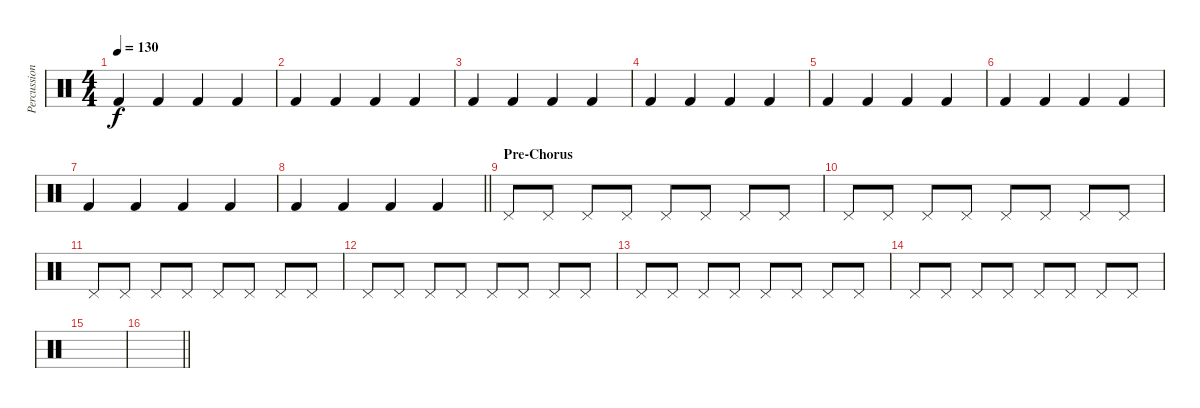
\track ("Percussion" "Percussion") {instrument percussion}
\staff {score}
\articulation defaults
\ts (4 4)
\tempo 130
\clef neutral
\ks c "Kick (hit) 2".4{dy f} "Kick (hit) 2".4 "Kick (hit) 2".4 "Kick (hit) 2".4
|
"Kick (hit) 2".4 "Kick (hit) 2".4 "Kick (hit) 2".4 "Kick (hit) 2".4 |
"Kick (hit) 2".4 "Kick (hit) 2".4 "Kick (hit) 2".4 "Kick (hit) 2".4 |
"Kick (hit) 2".4 "Kick (hit) 2".4 "Kick (hit) 2".4 "Kick (hit) 2".4 |
"Kick (hit) 2".4 "Kick (hit) 2".4 "Kick (hit) 2".4 "Kick (hit) 2".4 |
"Kick (hit) 2".4 "Kick (hit) 2".4 "Kick (hit) 2".4 "Kick (hit) 2".4 |
"Kick (hit) 2".4 "Kick (hit) 2".4 "Kick (hit) 2".4 "Kick (hit) 2".4 |
\barLineRight lightlight "Kick (hit) 2".4 "Kick (hit) 2".4 "Kick (hit) 2".4 "Kick (hit) 2".4
|
\section ("" "Pre-Chorus")
"Pedal Hi-Hat (hit)".8 "Pedal Hi-Hat (hit)".8 "Pedal Hi-Hat (hit)".8 "Pedal Hi-Hat (hit)".8 "Pedal Hi-Hat (hit)".8 "Pedal Hi-Hat (hit)".8 "Pedal Hi-Hat (hit)".8 "Pedal Hi-Hat (hit)".8 |
"Pedal Hi-Hat (hit)".8 "Pedal Hi-Hat (hit)".8 "Pedal Hi-Hat (hit)".8 "Pedal Hi-Hat (hit)".8 "Pedal Hi-Hat (hit)".8 "Pedal Hi-Hat (hit)".8 "Pedal Hi-Hat (hit)".8 "Pedal Hi-Hat (hit)".8 |
"Pedal Hi-Hat (hit)".8 "Pedal Hi-Hat (hit)".8 "Pedal Hi-Hat (hit)".8 "Pedal Hi-Hat (hit)".8 "Pedal Hi-Hat (hit)".8 "Pedal Hi-Hat (hit)".8 "Pedal Hi-Hat (hit)".8 "Pedal Hi-Hat (hit)".8 |
"Pedal Hi-Hat (hit)".8 "Pedal Hi-Hat (hit)".8 "Pedal Hi-Hat (hit)".8 "Pedal Hi-Hat (hit)".8 "Pedal Hi-Hat (hit)".8 "Pedal Hi-Hat (hit)".8 "Pedal Hi-Hat (hit)".8 "Pedal Hi-Hat (hit)".8 |
"Pedal Hi-Hat (hit)".8 "Pedal Hi-Hat (hit)".8 "Pedal Hi-Hat (hit)".8 "Pedal Hi-Hat (hit)".8 "Pedal Hi-Hat (hit)".8 "Pedal Hi-Hat (hit)".8 "Pedal Hi-Hat (hit)".8 "Pedal Hi-Hat (hit)".8 |
"Pedal Hi-Hat (hit)".8 "Pedal Hi-Hat (hit)".8 "Pedal Hi-Hat (hit)".8 "Pedal Hi-Hat (hit)".8 "Pedal Hi-Hat (hit)".8 "Pedal Hi-Hat (hit)".8 "Pedal Hi-Hat (hit)".8 "Pedal Hi-Hat (hit)".8 |
|
\barLineRight lightlight
